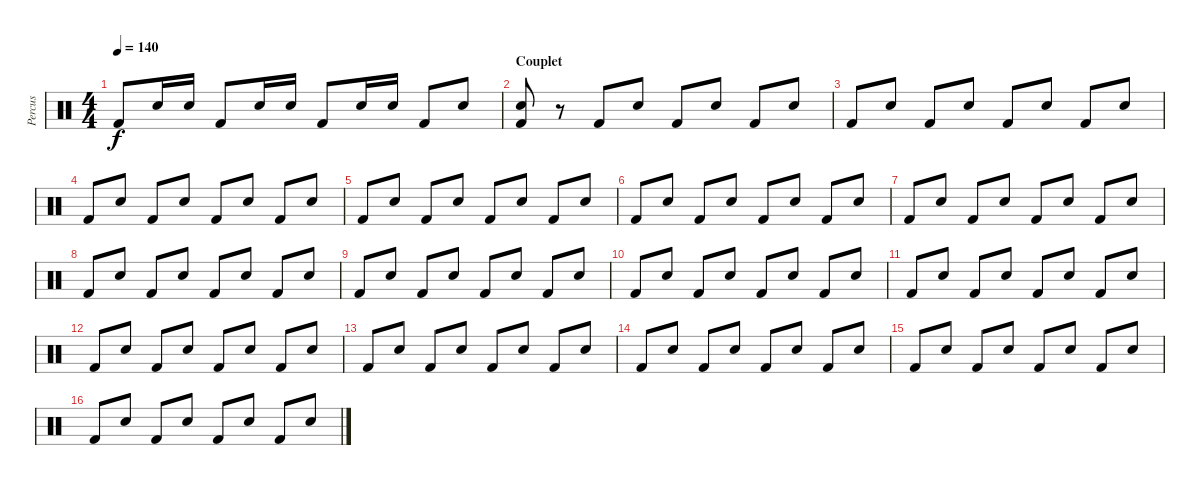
\track ("Percus" "Percus") {instrument percussion}
\staff {score}
\articulation defaults
\ts (4 4)
\tempo 140
\clef neutral
\ks c "Kick (hit) 2".8{dy f} "Snare (hit) 2".16 "Snare (hit) 2".16 "Kick (hit) 2".8 "Snare (hit) 2".16 "Snare (hit) 2".16 "Kick (hit) 2".8 "Snare (hit) 2".16 "Snare (hit) 2".16 "Kick (hit) 2".8 "Snare (hit) 2".8
|
\section ("" "Couplet")
("Snare (hit) 2" "Kick (hit) 2").8 r.8 "Kick (hit) 2".8 "Snare (hit) 2".8 "Kick (hit) 2".8 "Snare (hit) 2".8 "Kick (hit) 2".8 "Snare (hit) 2".8 |
"Kick (hit) 2".8 "Snare (hit) 2".8 "Kick (hit) 2".8 "Snare (hit) 2".8 "Kick (hit) 2".8 "Snare (hit) 2".8 "Kick (hit) 2".8 "Snare (hit) 2".8 |
"Kick (hit) 2".8 "Snare (hit) 2".8 "Kick (hit) 2".8 "Snare (hit) 2".8 "Kick (hit) 2".8 "Snare (hit) 2".8 "Kick (hit) 2".8 "Snare (hit) 2".8 |
"Kick (hit) 2".8 "Snare (hit) 2".8 "Kick (hit) 2".8 "Snare (hit) 2".8 "Kick (hit) 2".8 "Snare (hit) 2".8 "Kick (hit) 2".8 "Snare (hit) 2".8 |
"Kick (hit) 2".8 "Snare (hit) 2".8 "Kick (hit) 2".8 "Snare (hit) 2".8 "Kick (hit) 2".8 "Snare (hit) 2".8 "Kick (hit) 2".8 "Snare (hit) 2".8 |
"Kick (hit) 2".8 "Snare (hit) 2".8 "Kick (hit) 2".8 "Snare (hit) 2".8 "Kick (hit) 2".8 "Snare (hit) 2".8 "Kick (hit) 2".8 "Snare (hit) 2".8 |
"Kick (hit) 2".8 "Snare (hit) 2".8 "Kick (hit) 2".8 "Snare (hit) 2".8 "Kick (hit) 2".8 "Snare (hit) 2".8 "Kick (hit) 2".8 "Snare (hit) 2".8 |
"Kick (hit) 2".8 "Snare (hit) 2".8 "Kick (hit) 2".8 "Snare (hit) 2".8 "Kick (hit) 2".8 "Snare (hit) 2".8 "Kick (hit) 2".8 "Snare (hit) 2".8 |
\section ("" "")
"Kick (hit) 2".8 "Snare (hit) 2".8 "Kick (hit) 2".8 "Snare (hit) 2".8 "Kick (hit) 2".8 "Snare (hit) 2".8 "Kick (hit) 2".8 "Snare (hit) 2".8 |
"Kick (hit) 2".8 "Snare (hit) 2".8 "Kick (hit) 2".8 "Snare (hit) 2".8 "Kick (hit) 2".8 "Snare (hit) 2".8 "Kick (hit) 2".8 "Snare (hit) 2".8 |
"Kick (hit) 2".8 "Snare (hit) 2".8 "Kick (hit) 2".8 "Snare (hit) 2".8 "Kick (hit) 2".8 "Snare (hit) 2".8 "Kick (hit) 2".8 "Snare (hit) 2".8 |
"Kick (hit) 2".8 "Snare (hit) 2".8 "Kick (hit) 2".8 "Snare (hit) 2".8 "Kick (hit) 2".8 "Snare (hit) 2".8 "Kick (hit) 2".8 "Snare (hit) 2".8 |
\section ("" "")
"Kick (hit) 2".8 "Snare (hit) 2".8 "Kick (hit) 2".8 "Snare (hit) 2".8 "Kick (hit) 2".8 "Snare (hit) 2".8 "Kick (hit) 2".8 "Snare (hit) 2".8 |
"Kick (hit) 2".8 "Snare (hit) 2".8 "Kick (hit) 2".8 "Snare (hit) 2".8 "Kick (hit) 2".8 "Snare (hit) 2".8 "Kick (hit) 2".8 "Snare (hit) 2".8 |
"Kick (hit) 2".8 "Snare (hit) 2".8 "Kick (hit) 2".8 "Snare (hit) 2".8 "Kick (hit) 2".8 "Snare (hit) 2".8 "Kick (hit) 2".8 "Snare (hit) 2".8
